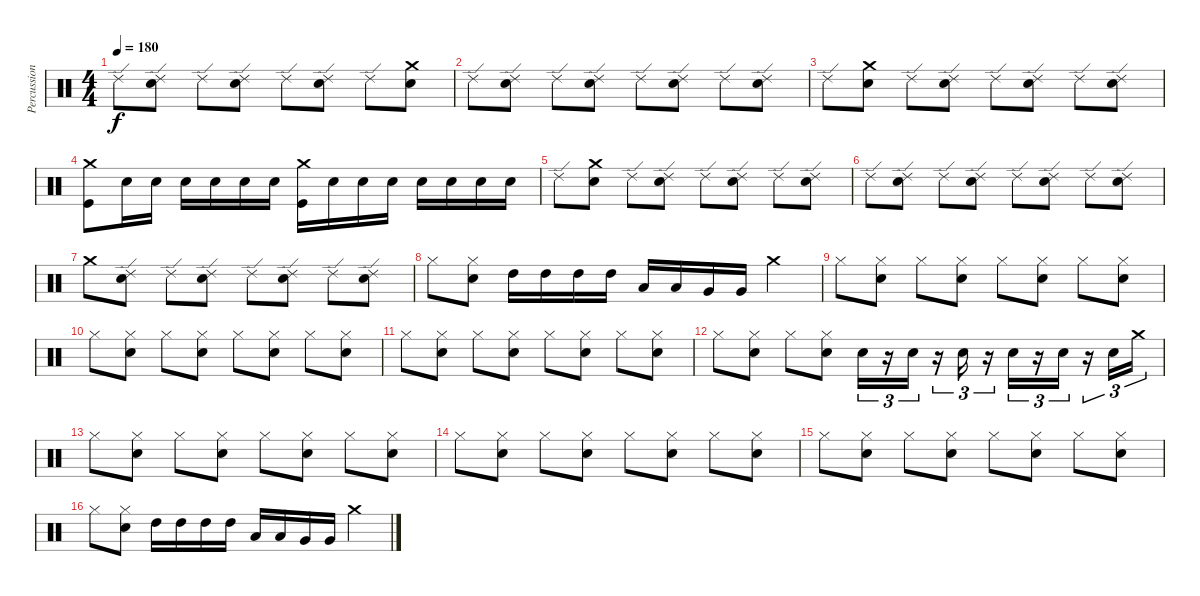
\track ("Percussion" "Percussion") {instrument percussion}
\staff {score}
\articulation defaults
\ts (4 4)
\tempo 180
\clef neutral
\ks c "Ride (edge) 2".8{dy f}
("Snare (hit) 2" "Ride (edge) 2").8 "Ride (edge) 2".8 ("Snare (hit) 2" "Ride (edge) 2").8 "Ride (edge) 2".8 ("Snare (hit) 2" "Ride (edge) 2").8 "Ride (edge) 2".8 ("Snare (hit) 2" "Crash medium (hit)").8 |
"Ride (edge) 2".8 ("Snare (hit) 2" "Ride (edge) 2").8 "Ride (edge) 2".8 ("Snare (hit) 2" "Ride (edge) 2").8 "Ride (edge) 2".8 ("Snare (hit) 2" "Ride (edge) 2").8 "Ride (edge) 2".8 ("Snare (hit) 2" "Ride (edge) 2").8 |
"Ride (edge) 2".8 ("Snare (hit) 2" "Crash medium (hit)").8 "Ride (edge) 2".8 ("Snare (hit) 2" "Ride (edge) 2").8 "Ride (edge) 2".8 ("Snare (hit) 2" "Ride (edge) 2").8 "Ride (edge) 2".8 ("Snare (hit) 2" "Ride (edge) 2").8 |
("Crash medium (hit)" "Kick (hit)").8 "Electric Snare (hit)".16 "Electric Snare (hit)".16 "Electric Snare (hit)".16 "Electric Snare (hit)".16 "Electric Snare (hit)".16 "Electric Snare (hit)".16 ("Crash medium (hit)" "Kick (hit)").16 "Electric Snare (hit)".16 "Electric Snare (hit)".16 "Electric Snare (hit)".16 "Electric Snare (hit)".16 "Electric Snare (hit)".16 "Electric Snare (hit)".16 "Electric Snare (hit)".16 |
"Ride (edge) 2".8 ("Snare (hit) 2" "Crash medium (hit)").8 "Ride (edge) 2".8 ("Snare (hit) 2" "Ride (edge) 2").8 "Ride (edge) 2".8 ("Snare (hit) 2" "Ride (edge) 2").8 "Ride (edge) 2".8 ("Snare (hit) 2" "Ride (edge) 2").8 |
"Ride (edge) 2".8 ("Snare (hit) 2" "Ride (edge) 2").8 "Ride (edge) 2".8 ("Snare (hit) 2" "Ride (edge) 2").8 "Ride (edge) 2".8 ("Snare (hit) 2" "Ride (edge) 2").8 "Ride (edge) 2".8 ("Snare (hit) 2" "Ride (edge) 2").8 |
"Crash medium (hit)".8 ("Snare (hit) 2" "Ride (edge) 2").8 "Ride (edge) 2".8 ("Snare (hit) 2" "Ride (edge) 2").8 "Ride (edge) 2".8 ("Snare (hit) 2" "Ride (edge) 2").8 "Ride (edge) 2".8 ("Snare (hit) 2" "Ride (edge) 2").8 |
"Hi-Hat (closed)".8 ("Snare (hit) 2" "Hi-Hat (closed)").8 "High Tom (hit)".16 "High Tom (hit)".16 "High Tom (hit)".16 "High Tom (hit)".16 "Low Tom (hit)".16 "Low Tom (hit)".16 "Very Low Tom (hit)".16 "Very Low Tom (hit)".16 "Crash medium (hit)".4 |
"Hi-Hat (closed)".8 ("Snare (hit) 2" "Hi-Hat (closed)").8 "Hi-Hat (closed)".8 ("Snare (hit) 2" "Hi-Hat (closed)").8 "Hi-Hat (closed)".8 ("Snare (hit) 2" "Hi-Hat (closed)").8 "Hi-Hat (closed)".8 ("Snare (hit) 2" "Hi-Hat (closed)").8 |
"Hi-Hat (closed)".8 ("Snare (hit) 2" "Hi-Hat (closed)").8 "Hi-Hat (closed)".8 ("Snare (hit) 2" "Hi-Hat (closed)").8 "Hi-Hat (closed)".8 ("Snare (hit) 2" "Hi-Hat (closed)").8 "Hi-Hat (closed)".8 ("Snare (hit) 2" "Hi-Hat (closed)").8 |
"Hi-Hat (closed)".8 ("Snare (hit) 2" "Hi-Hat (closed)").8 "Hi-Hat (closed)".8 ("Snare (hit) 2" "Hi-Hat (closed)").8 "Hi-Hat (closed)".8 ("Snare (hit) 2" "Hi-Hat (closed)").8 "Hi-Hat (closed)".8 ("Snare (hit) 2" "Hi-Hat (closed)").8 |
"Hi-Hat (closed)".8 ("Snare (hit) 2" "Hi-Hat (closed)").8 "Hi-Hat (closed)".8 ("Snare (hit) 2" "Hi-Hat (closed)").8 "Electric Snare (hit)".16{tu (3 2)} r.16{tu (3 2)} "Electric Snare (hit)".16{tu (3 2)} r.16{tu (3 2)} "Electric Snare (hit)".16{tu (3 2)} r.16{tu (3 2)} "Electric Snare (hit)".16{tu (3 2)} r.16{tu (3 2)} "Electric Snare (hit)".16{tu (3 2)} r.16{tu (3 2)} "Electric Snare (hit)".16{tu (3 2)} "Crash medium (hit)".16{tu (3 2)} |
"Hi-Hat (closed)".8 ("Snare (hit) 2" "Hi-Hat (closed)").8 "Hi-Hat (closed)".8 ("Snare (hit) 2" "Hi-Hat (closed)").8 "Hi-Hat (closed)".8 ("Snare (hit) 2" "Hi-Hat (closed)").8 "Hi-Hat (closed)".8 ("Snare (hit) 2" "Hi-Hat (closed)").8 |
"Hi-Hat (closed)".8 ("Snare (hit) 2" "Hi-Hat (closed)").8 "Hi-Hat (closed)".8 ("Snare (hit) 2" "Hi-Hat (closed)").8 "Hi-Hat (closed)".8 ("Snare (hit) 2" "Hi-Hat (closed)").8 "Hi-Hat (closed)".8 ("Snare (hit) 2" "Hi-Hat (closed)").8 |
"Hi-Hat (closed)".8 ("Snare (hit) 2" "Hi-Hat (closed)").8 "Hi-Hat (closed)".8 ("Snare (hit) 2" "Hi-Hat (closed)").8 "Hi-Hat (closed)".8 ("Snare (hit) 2" "Hi-Hat (closed)").8 "Hi-Hat (closed)".8 ("Snare (hit) 2" "Hi-Hat (closed)").8 |
"Hi-Hat (closed)".8 ("Snare (hit) 2" "Hi-Hat (closed)").8 "High Tom (hit)".16 "High Tom (hit)".16 "High Tom (hit)".16 "High Tom (hit)".16 "Low Tom (hit)".16 "Low Tom (hit)".16 "Very Low Tom (hit)".16 "Very Low Tom (hit)".16 "Crash medium (hit)".4
